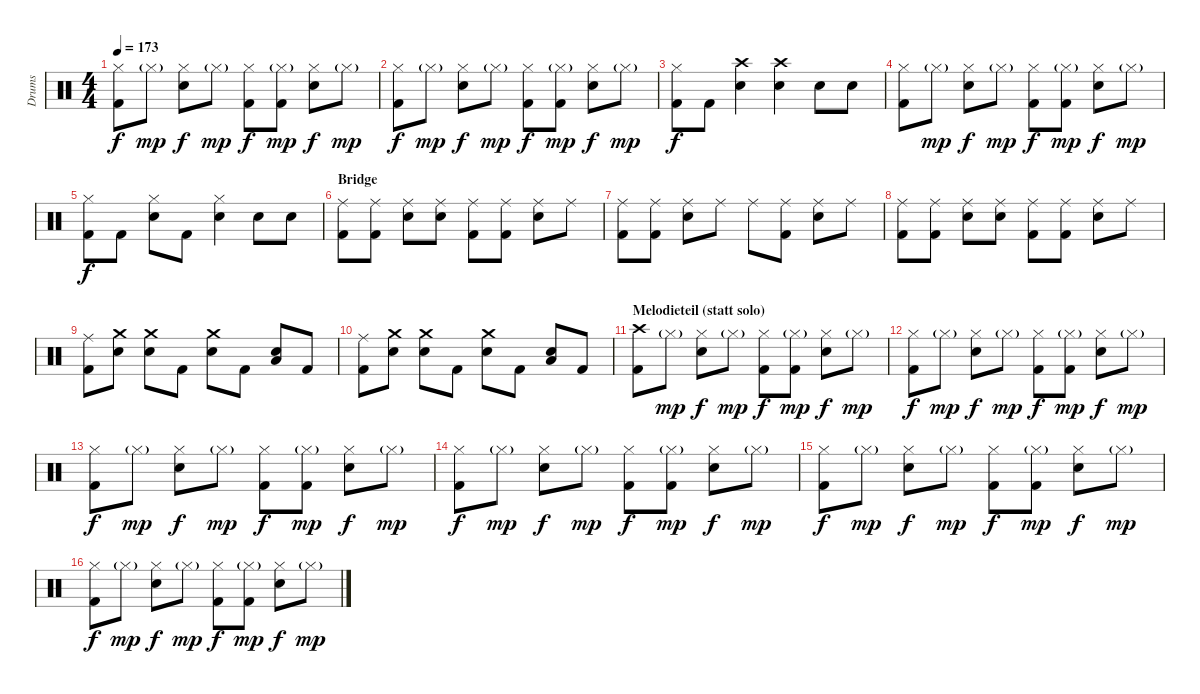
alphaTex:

\track ("Drums" "Drums") {instrument percussion}
\staff {score}
\articulation defaults
\ts (4 4)
\tempo 173
\clef neutral
\ks c
("Hi-Hat (closed)" "Kick (hit) 2").8{dy f} "Hi-Hat (closed)"{g}.8{dy mp} ("Hi-Hat (closed)" "Electric Snare (hit)").8{dy f} "Hi-Hat (closed)"{g}.8{dy mp} ("Hi-Hat (closed)" "Kick (hit) 2").8{dy f} ("Hi-Hat (closed)"{g} "Kick (hit) 2").8{dy mp} ("Hi-Hat (closed)" "Electric Snare (hit)").8{dy f} "Hi-Hat (closed)"{g}.8{dy mp} |
("Hi-Hat (closed)" "Kick (hit) 2").8{dy f} "Hi-Hat (closed)"{g}.8{dy mp} ("Hi-Hat (closed)" "Electric Snare (hit)").8{dy f} "Hi-Hat (closed)"{g}.8{dy mp} ("Hi-Hat (closed)" "Kick (hit) 2").8{dy f} ("Hi-Hat (closed)"{g} "Kick (hit) 2").8{dy mp} ("Hi-Hat (closed)" "Electric Snare (hit)").8{dy f} "Hi-Hat (closed)"{g}.8{dy mp} |
("Hi-Hat (closed)" "Kick (hit) 2").8{dy f} "Kick (hit) 2".8 ("Crash high (hit)" "Electric Snare (hit)").4 ("Crash high (hit)" "Electric Snare (hit)").4 "Electric Snare (hit)".8 "Electric Snare (hit)".8 |
("Hi-Hat (closed)" "Kick (hit) 2").8 "Hi-Hat (closed)"{g}.8{dy mp} ("Hi-Hat (closed)" "Electric Snare (hit)").8{dy f} "Hi-Hat (closed)"{g}.8{dy mp} ("Hi-Hat (closed)" "Kick (hit) 2").8{dy f} ("Hi-Hat (closed)"{g} "Kick (hit) 2").8{dy mp} ("Hi-Hat (closed)" "Electric Snare (hit)").8{dy f} "Hi-Hat (closed)"{g}.8{dy mp} |
("Hi-Hat (closed)" "Kick (hit) 2").8{dy f} "Kick (hit) 2".8 ("Hi-Hat (closed)" "Electric Snare (hit)").8 "Kick (hit) 2".8 ("Hi-Hat (closed)" "Electric Snare (hit)").4 "Electric Snare (hit)".8 "Electric Snare (hit)".8 |
\section ("" "Bridge")
("Ride (middle)" "Kick (hit) 2").8 ("Ride (middle)" "Kick (hit) 2").8 ("Ride (middle)" "Electric Snare (hit)").8 ("Ride (middle)" "Electric Snare (hit)").8 ("Ride (middle)" "Kick (hit) 2").8 ("Ride (middle)" "Kick (hit) 2").8 ("Ride (middle)" "Electric Snare (hit)").8 "Ride (middle)".8 |
("Ride (middle)" "Kick (hit) 2").8 ("Ride (middle)" "Kick (hit) 2").8 ("Ride (middle)" "Electric Snare (hit)").8 "Ride (middle)".8 "Ride (middle)".8 ("Ride (middle)" "Kick (hit) 2").8 ("Ride (middle)" "Electric Snare (hit)").8 "Ride (middle)".8 |
("Ride (middle)" "Kick (hit) 2").8 ("Ride (middle)" "Kick (hit) 2").8 ("Ride (middle)" "Electric Snare (hit)").8 ("Ride (middle)" "Electric Snare (hit)").8 ("Ride (middle)" "Kick (hit) 2").8 ("Ride (middle)" "Kick (hit) 2").8 ("Ride (middle)" "Electric Snare (hit)").8 "Ride (middle)".8 |
("Ride (middle)" "Kick (hit) 2").8 ("Crash medium (hit)" "Electric Snare (hit)").8 ("Crash medium (hit)" "Electric Snare (hit)").8 "Kick (hit) 2".8 ("Crash medium (hit)" "Electric Snare (hit)").8 "Kick (hit) 2".8 ("Electric Snare (hit)" "Low Tom (hit)").8 "Kick (hit) 2".8 |
("Ride (middle)" "Kick (hit) 2").8 ("Crash medium (hit)" "Electric Snare (hit)").8 ("Crash medium (hit)" "Electric Snare (hit)").8 "Kick (hit) 2".8 ("Crash medium (hit)" "Electric Snare (hit)").8 "Kick (hit) 2".8 ("Electric Snare (hit)" "Low Tom (hit)").8 "Kick (hit) 2".8 |
\section ("" "Melodieteil (statt solo)")
("Crash high (hit)" "Kick (hit) 2").8 "Hi-Hat (closed)"{g}.8{dy mp} ("Hi-Hat (closed)" "Electric Snare (hit)").8{dy f} "Hi-Hat (closed)"{g}.8{dy mp} ("Hi-Hat (closed)" "Kick (hit) 2").8{dy f} ("Hi-Hat (closed)"{g} "Kick (hit) 2").8{dy mp} ("Hi-Hat (closed)" "Electric Snare (hit)").8{dy f} "Hi-Hat (closed)"{g}.8{dy mp} |
("Hi-Hat (closed)" "Kick (hit) 2").8{dy f} "Hi-Hat (closed)"{g}.8{dy mp} ("Hi-Hat (closed)" "Electric Snare (hit)").8{dy f} "Hi-Hat (closed)"{g}.8{dy mp} ("Hi-Hat (closed)" "Kick (hit) 2").8{dy f} ("Hi-Hat (closed)"{g} "Kick (hit) 2").8{dy mp} ("Hi-Hat (closed)" "Electric Snare (hit)").8{dy f} "Hi-Hat (closed)"{g}.8{dy mp} |
("Hi-Hat (closed)" "Kick (hit) 2").8{dy f} "Hi-Hat (closed)"{g}.8{dy mp} ("Hi-Hat (closed)" "Electric Snare (hit)").8{dy f} "Hi-Hat (closed)"{g}.8{dy mp} ("Hi-Hat (closed)" "Kick (hit) 2").8{dy f} ("Hi-Hat (closed)"{g} "Kick (hit) 2").8{dy mp} ("Hi-Hat (closed)" "Electric Snare (hit)").8{dy f} "Hi-Hat (closed)"{g}.8{dy mp} |
("Hi-Hat (closed)" "Kick (hit) 2").8{dy f} "Hi-Hat (closed)"{g}.8{dy mp} ("Hi-Hat (closed)" "Electric Snare (hit)").8{dy f} "Hi-Hat (closed)"{g}.8{dy mp} ("Hi-Hat (closed)" "Kick (hit) 2").8{dy f} ("Hi-Hat (closed)"{g} "Kick (hit) 2").8{dy mp} ("Hi-Hat (closed)" "Electric Snare (hit)").8{dy f} "Hi-Hat (closed)"{g}.8{dy mp} |
("Hi-Hat (closed)" "Kick (hit) 2").8{dy f} "Hi-Hat (closed)"{g}.8{dy mp} ("Hi-Hat (closed)" "Electric Snare (hit)").8{dy f} "Hi-Hat (closed)"{g}.8{dy mp} ("Hi-Hat (closed)" "Kick (hit) 2").8{dy f} ("Hi-Hat (closed)"{g} "Kick (hit) 2").8{dy mp} ("Hi-Hat (closed)" "Electric Snare (hit)").8{dy f} "Hi-Hat (closed)"{g}.8{dy mp} |
("Hi-Hat (closed)" "Kick (hit) 2").8{dy f} "Hi-Hat (closed)"{g}.8{dy mp} ("Hi-Hat (closed)" "Electric Snare (hit)").8{dy f} "Hi-Hat (closed)"{g}.8{dy mp} ("Hi-Hat (closed)" "Kick (hit) 2").8{dy f} ("Hi-Hat (closed)"{g} "Kick (hit) 2").8{dy mp} ("Hi-Hat (closed)" "Electric Snare (hit)").8{dy f} "Hi-Hat (closed)"{g}.8{dy mp}
